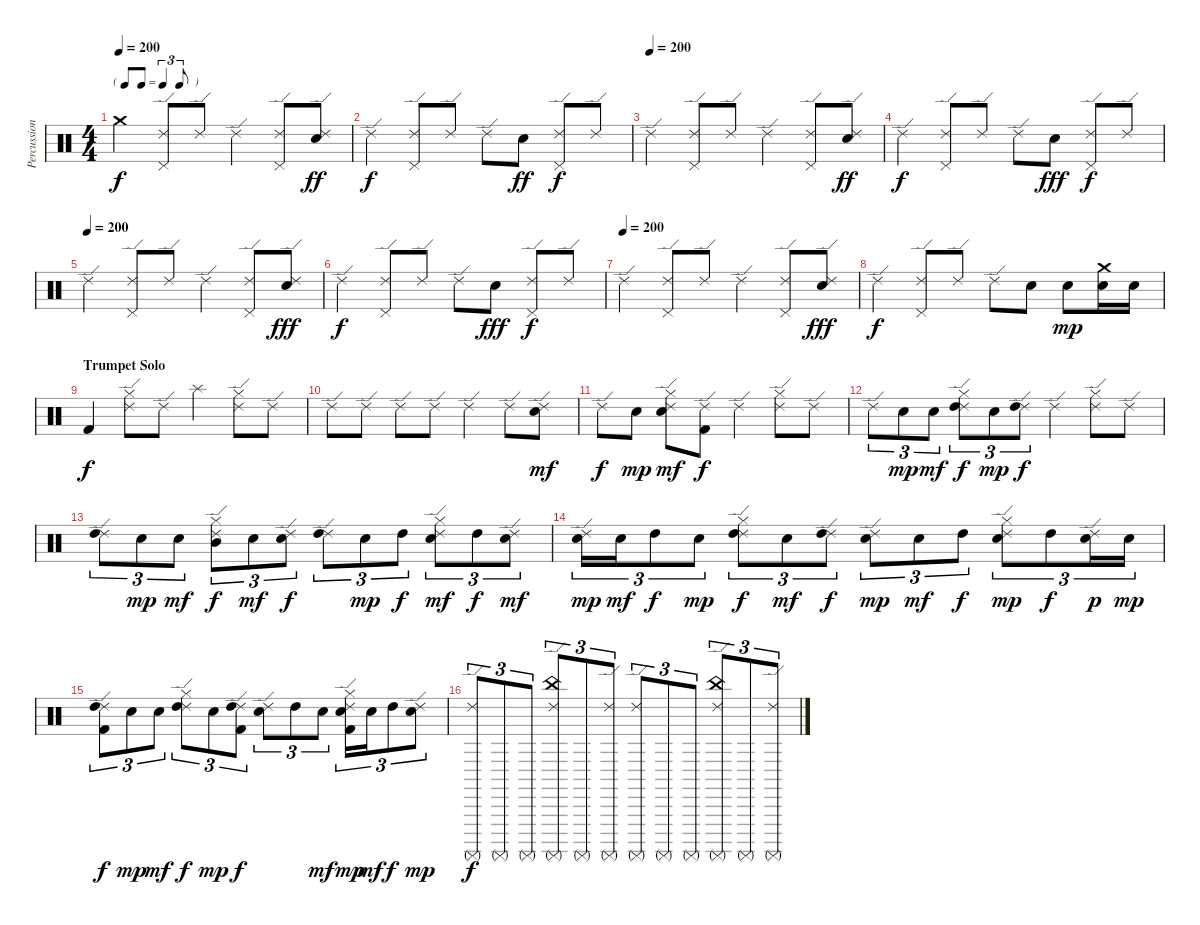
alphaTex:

\track ("Percussion" "Percussion") {instrument percussion}
\staff {score}
\articulation defaults
\ts (4 4)
\tf triplet8th
\tempo 200
\clef neutral
\ks c "Crash medium (hit)".4{dy f}
("Ride (edge) 2" "Pedal Hi-Hat (hit)").8 "Ride (edge) 2".8 "Ride (edge) 2".4 ("Ride (edge) 2" "Pedal Hi-Hat (hit)").8 ("Ride (edge) 2" "Snare (hit) 2").8{dy ff} |
"Ride (edge) 2".4{dy f} ("Ride (edge) 2" "Pedal Hi-Hat (hit)").8 "Ride (edge) 2".8 "Ride (edge) 2".8 "Snare (hit) 2".8{dy ff} ("Ride (edge) 2" "Pedal Hi-Hat (hit)").8{dy f} "Ride (edge) 2".8 |
\tempo (200)
"Ride (edge) 2".4 ("Ride (edge) 2" "Pedal Hi-Hat (hit)").8 "Ride (edge) 2".8 "Ride (edge) 2".4 ("Ride (edge) 2" "Pedal Hi-Hat (hit)").8 ("Ride (edge) 2" "Snare (hit) 2").8{dy ff} |
"Ride (edge) 2".4{dy f} ("Ride (edge) 2" "Pedal Hi-Hat (hit)").8 "Ride (edge) 2".8 "Ride (edge) 2".8 "Snare (hit) 2".8{dy fff} ("Ride (edge) 2" "Pedal Hi-Hat (hit)").8{dy f} "Ride (edge) 2".8 |
\tempo (200)
"Ride (edge) 2".4 ("Ride (edge) 2" "Pedal Hi-Hat (hit)").8 "Ride (edge) 2".8 "Ride (edge) 2".4 ("Ride (edge) 2" "Pedal Hi-Hat (hit)").8 ("Ride (edge) 2" "Snare (hit) 2").8{dy fff} |
"Ride (edge) 2".4{dy f} ("Ride (edge) 2" "Pedal Hi-Hat (hit)").8 "Ride (edge) 2".8 "Ride (edge) 2".8 "Snare (hit) 2".8{dy fff} ("Ride (edge) 2" "Pedal Hi-Hat (hit)").8{dy f} "Ride (edge) 2".8 |
\tempo (200)
"Ride (edge) 2".4 ("Ride (edge) 2" "Pedal Hi-Hat (hit)").8 "Ride (edge) 2".8 "Ride (edge) 2".4 ("Ride (edge) 2" "Pedal Hi-Hat (hit)").8 ("Ride (edge) 2" "Snare (hit) 2").8{dy fff} |
"Ride (edge) 2".4{dy f} ("Ride (edge) 2" "Pedal Hi-Hat (hit)").8 "Ride (edge) 2".8 "Ride (edge) 2".8 "Electric Snare (hit)".8 "Electric Snare (hit)".8{dy mp} ("Crash medium (hit)" "Electric Snare (hit)").16 "Electric Snare (hit)".16 |
\section ("" "Trumpet Solo")
"Kick (hit) 2".4{dy f} ("Ride (edge) 2" "Hi-Hat (closed)").8 "Ride (edge) 2".8 "Splash (hit)".4 ("Ride (edge) 2" "Hi-Hat (closed)").8 "Ride (edge) 2".8 |
"Ride (edge) 2".8 "Ride (edge) 2".8 "Ride (edge) 2".8 "Ride (edge) 2".8 "Ride (edge) 2".4 "Ride (edge) 2".8 ("Ride (edge) 2" "Electric Snare (hit)").8{dy mf} |
"Ride (edge) 2".8{dy f} "Electric Snare (hit)".8{dy mp} ("Ride (edge) 2" "Hi-Hat (closed)" "Electric Snare (hit)").8{dy mf} ("Ride (edge) 2" "Kick (hit) 2").8{dy f} "Ride (edge) 2".4 ("Ride (edge) 2" "Hi-Hat (closed)").8 "Ride (edge) 2".8 |
"Ride (edge) 2".8{tu (3 2)} "Electric Snare (hit)".8{tu (3 2) dy mp} "Electric Snare (hit)".8{tu (3 2) dy mf} ("Ride (edge) 2" "Hi-Hat (closed)" "High Tom (hit)").8{tu (3 2) dy f} "Electric Snare (hit)".8{tu (3 2) dy mp} ("Ride (edge) 2" "High Tom (hit)").8{tu (3 2) dy f} "Ride (edge) 2".4 ("Ride (edge) 2" "Hi-Hat (closed)").8 "Ride (edge) 2".8 |
("Ride (edge) 2" "High Tom (hit)").8{tu (3 2)} "Electric Snare (hit)".8{tu (3 2) dy mp} "Electric Snare (hit)".8{tu (3 2) dy mf} ("Ride (edge) 2" "Hi-Hat (closed)" "Mid Tom (hit)").8{tu (3 2) dy f} "Electric Snare (hit)".8{tu (3 2) dy mf} ("Ride (edge) 2" "Electric Snare (hit)").8{tu (3 2) dy f} ("Ride (edge) 2" "High Tom (hit)").8{tu (3 2)} "Electric Snare (hit)".8{tu (3 2) dy mp} "High Tom (hit)".8{tu (3 2) dy f} ("Ride (edge) 2" "Hi-Hat (closed)" "Electric Snare (hit)").8{tu (3 2) dy mf} "High Tom (hit)".8{tu (3 2) dy f} ("Ride (edge) 2" "Electric Snare (hit)").8{tu (3 2) dy mf} |
("Ride (edge) 2" "Electric Snare (hit)").16{tu (3 2) dy mp} "Electric Snare (hit)".16{tu (3 2) dy mf} "High Tom (hit)".8{tu (3 2) dy f} "Electric Snare (hit)".8{tu (3 2) dy mp} ("Ride (edge) 2" "Hi-Hat (closed)" "High Tom (hit)").8{tu (3 2) dy f} "Electric Snare (hit)".8{tu (3 2) dy mf} ("Ride (edge) 2" "High Tom (hit)").8{tu (3 2) dy f} ("Ride (edge) 2" "Electric Snare (hit)").8{tu (3 2) dy mp} "Electric Snare (hit)".8{tu (3 2) dy mf} "High Tom (hit)".8{tu (3 2) dy f} ("Ride (edge) 2" "Hi-Hat (closed)" "Electric Snare (hit)").8{tu (3 2) dy mp} "High Tom (hit)".8{tu (3 2) dy f} ("Ride (edge) 2" "Electric Snare (hit)").16{tu (3 2) dy p} "Electric Snare (hit)".16{tu (3 2) dy mp} |
("Ride (edge) 2" "High Tom (hit)" "Kick (hit) 2").8{tu (3 2) dy f} "Electric Snare (hit)".8{tu (3 2) dy mp} "Electric Snare (hit)".8{tu (3 2) dy mf} ("Ride (edge) 2" "Hi-Hat (closed)" "High Tom (hit)").8{tu (3 2) dy f} "Electric Snare (hit)".8{tu (3 2) dy mp} ("Ride (edge) 2" "High Tom (hit)" "Kick (hit) 2").8{tu (3 2) dy f} ("Ride (edge) 2" "Electric Snare (hit)").8{tu (3 2)} "High Tom (hit)".8{tu (3 2)} "Electric Snare (hit)".8{tu (3 2) dy mf} ("Ride (edge) 2" "Hi-Hat (closed)" "Electric Snare (hit)" "Kick (hit) 2").16{tu (3 2) dy mp} "Electric Snare (hit)".16{tu (3 2) dy mf} "High Tom (hit)".8{tu (3 2) dy f} ("Ride (edge) 2" "Electric Snare (hit)").8{tu (3 2) dy mp} |
("Ride (edge) 2" "Surdo (mute)").8{tu (3 2) dy f} "Surdo (mute)".8{tu (3 2)} "Surdo (mute)".8{tu (3 2)} ("Ride (edge) 2" "China (hit)" "Surdo (mute)").8{tu (3 2)} "Surdo (mute)".8{tu (3 2)} ("Ride (edge) 2" "Surdo (mute)").8{tu (3 2)} ("Ride (edge) 2" "Surdo (mute)").8{tu (3 2)} "Surdo (mute)".8{tu (3 2)} "Surdo (mute)".8{tu (3 2)} ("Ride (edge) 2" "China (hit)" "Surdo (mute)").8{tu (3 2)} "Surdo (mute)".8{tu (3 2)} ("Ride (edge) 2" "Surdo (mute)").8{tu (3 2)}
